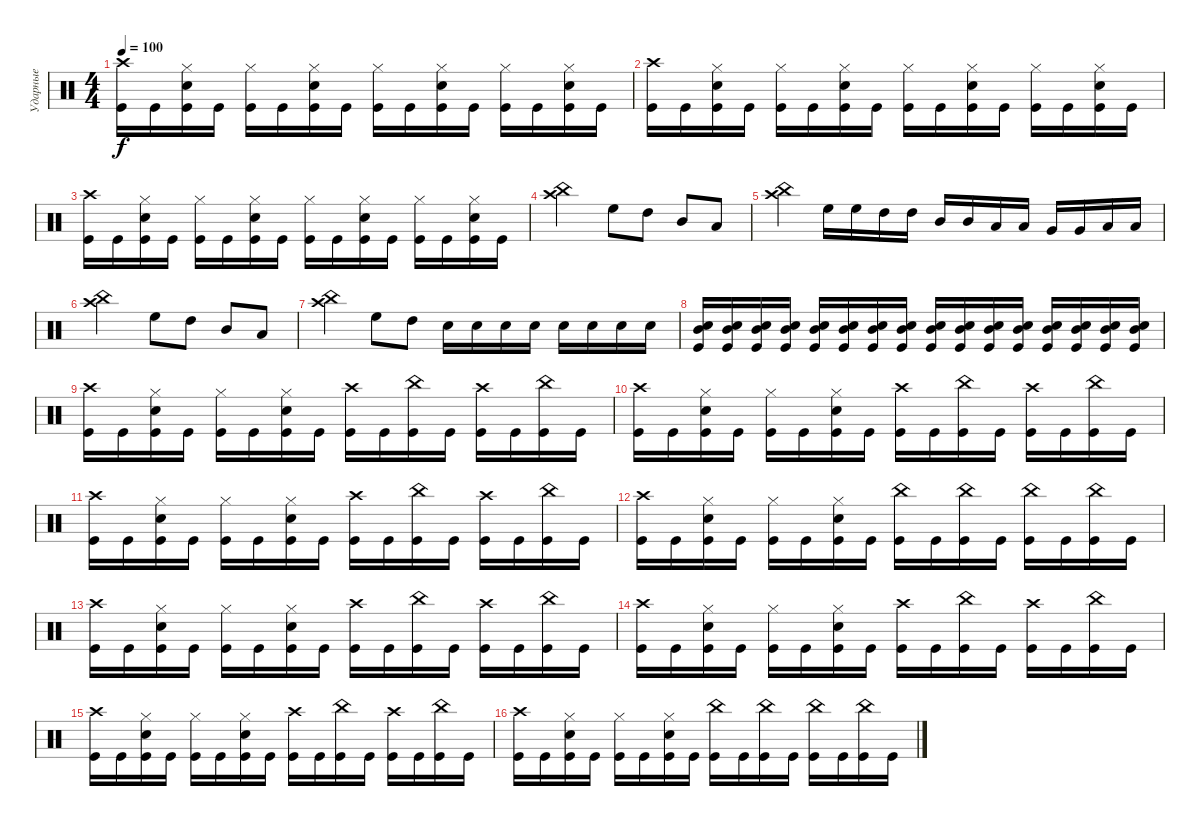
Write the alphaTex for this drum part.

\track ("Ударные" "Ударные") {instrument percussion}
\staff {score}
\articulation defaults
\ts (4 4)
\tempo 100
\clef neutral
\ks c
("Kick (hit)" "Crash high (hit)").16{dy f} "Kick (hit)".16 ("Kick (hit)" "Hi-Hat (closed)" "Snare (hit) 2").16 "Kick (hit)".16 ("Kick (hit)" "Hi-Hat (closed)").16 "Kick (hit)".16 ("Kick (hit)" "Hi-Hat (closed)" "Snare (hit) 2").16 "Kick (hit)".16 ("Kick (hit)" "Hi-Hat (closed)").16 "Kick (hit)".16 ("Kick (hit)" "Hi-Hat (closed)" "Snare (hit) 2").16 "Kick (hit)".16 ("Kick (hit)" "Hi-Hat (closed)").16 "Kick (hit)".16 ("Kick (hit)" "Hi-Hat (closed)" "Snare (hit) 2").16 "Kick (hit)".16 |
("Kick (hit)" "Crash high (hit)").16 "Kick (hit)".16 ("Kick (hit)" "Hi-Hat (closed)" "Snare (hit) 2").16 "Kick (hit)".16 ("Kick (hit)" "Hi-Hat (closed)").16 "Kick (hit)".16 ("Kick (hit)" "Hi-Hat (closed)" "Snare (hit) 2").16 "Kick (hit)".16 ("Kick (hit)" "Hi-Hat (closed)").16 "Kick (hit)".16 ("Kick (hit)" "Hi-Hat (closed)" "Snare (hit) 2").16 "Kick (hit)".16 ("Kick (hit)" "Hi-Hat (closed)").16 "Kick (hit)".16 ("Kick (hit)" "Hi-Hat (closed)" "Snare (hit) 2").16 "Kick (hit)".16 |
("Kick (hit)" "Crash high (hit)").16 "Kick (hit)".16 ("Kick (hit)" "Hi-Hat (closed)" "Snare (hit) 2").16 "Kick (hit)".16 ("Kick (hit)" "Hi-Hat (closed)").16 "Kick (hit)".16 ("Kick (hit)" "Hi-Hat (closed)" "Snare (hit) 2").16 "Kick (hit)".16 ("Kick (hit)" "Hi-Hat (closed)").16 "Kick (hit)".16 ("Kick (hit)" "Hi-Hat (closed)" "Snare (hit) 2").16 "Kick (hit)".16 ("Kick (hit)" "Hi-Hat (closed)").16 "Kick (hit)".16 ("Kick (hit)" "Hi-Hat (closed)" "Snare (hit) 2").16 "Kick (hit)".16 |
("Crash high (hit)" "China (hit)").2 "High Floor Tom (hit)".8 "High Tom (hit)".8 "Mid Tom (hit)".8 "Low Tom (hit)".8 |
("Crash high (hit)" "China (hit)").4 "High Floor Tom (hit)".16 "High Floor Tom (hit)".16 "High Tom (hit)".16 "High Tom (hit)".16 "Mid Tom (hit)".16 "Mid Tom (hit)".16 "Low Tom (hit)".16 "Low Tom (hit)".16 "Very Low Tom (hit)".16 "Very Low Tom (hit)".16 "Low Floor Tom (hit)".16 "Low Floor Tom (hit)".16 |
("Crash high (hit)" "China (hit)").2 "High Floor Tom (hit)".8 "High Tom (hit)".8 "Mid Tom (hit)".8 "Low Tom (hit)".8 |
("Crash high (hit)" "China (hit)").4 "High Floor Tom (hit)".8 "High Tom (hit)".8 "Snare (hit) 2".16 "Snare (hit) 2".16 "Snare (hit) 2".16 "Snare (hit) 2".16 "Snare (hit) 2".16 "Snare (hit) 2".16 "Snare (hit) 2".16 "Snare (hit) 2".16 |
("Kick (hit)" "Snare (hit) 2" "Mid Tom (hit)").16 ("Kick (hit)" "Snare (hit) 2" "Mid Tom (hit)").16 ("Kick (hit)" "Snare (hit) 2" "Mid Tom (hit)").16 ("Kick (hit)" "Snare (hit) 2" "Mid Tom (hit)").16 ("Kick (hit)" "Snare (hit) 2" "Mid Tom (hit)").16 ("Kick (hit)" "Snare (hit) 2" "Mid Tom (hit)").16 ("Kick (hit)" "Snare (hit) 2" "Mid Tom (hit)").16 ("Kick (hit)" "Snare (hit) 2" "Mid Tom (hit)").16 ("Kick (hit)" "Snare (hit) 2" "Mid Tom (hit)").16 ("Kick (hit)" "Snare (hit) 2" "Mid Tom (hit)").16 ("Kick (hit)" "Snare (hit) 2" "Mid Tom (hit)").16 ("Kick (hit)" "Snare (hit) 2" "Mid Tom (hit)").16 ("Kick (hit)" "Snare (hit) 2" "Mid Tom (hit)").16 ("Kick (hit)" "Snare (hit) 2" "Mid Tom (hit)").16 ("Kick (hit)" "Snare (hit) 2" "Mid Tom (hit)").16 ("Kick (hit)" "Snare (hit) 2" "Mid Tom (hit)").16 |
("Kick (hit)" "Crash high (hit)").16 "Kick (hit)".16 ("Kick (hit)" "Hi-Hat (closed)" "Snare (hit) 2").16 "Kick (hit)".16 ("Kick (hit)" "Hi-Hat (closed)").16 "Kick (hit)".16 ("Kick (hit)" "Hi-Hat (closed)" "Snare (hit) 2").16 "Kick (hit)".16 ("Kick (hit)" "Crash high (hit)").16 "Kick (hit)".16 ("Kick (hit)" "China (hit)").16 "Kick (hit)".16 ("Kick (hit)" "Crash high (hit)").16 "Kick (hit)".16 ("Kick (hit)" "China (hit)").16 "Kick (hit)".16 |
("Kick (hit)" "Crash high (hit)").16 "Kick (hit)".16 ("Kick (hit)" "Hi-Hat (closed)" "Snare (hit) 2").16 "Kick (hit)".16 ("Kick (hit)" "Hi-Hat (closed)").16 "Kick (hit)".16 ("Kick (hit)" "Hi-Hat (closed)" "Snare (hit) 2").16 "Kick (hit)".16 ("Kick (hit)" "Crash high (hit)").16 "Kick (hit)".16 ("Kick (hit)" "China (hit)").16 "Kick (hit)".16 ("Kick (hit)" "Crash high (hit)").16 "Kick (hit)".16 ("Kick (hit)" "China (hit)").16 "Kick (hit)".16 |
("Kick (hit)" "Crash high (hit)").16 "Kick (hit)".16 ("Kick (hit)" "Hi-Hat (closed)" "Snare (hit) 2").16 "Kick (hit)".16 ("Kick (hit)" "Hi-Hat (closed)").16 "Kick (hit)".16 ("Kick (hit)" "Hi-Hat (closed)" "Snare (hit) 2").16 "Kick (hit)".16 ("Kick (hit)" "Crash high (hit)").16 "Kick (hit)".16 ("Kick (hit)" "China (hit)").16 "Kick (hit)".16 ("Kick (hit)" "Crash high (hit)").16 "Kick (hit)".16 ("Kick (hit)" "China (hit)").16 "Kick (hit)".16 |
("Kick (hit)" "Crash high (hit)").16 "Kick (hit)".16 ("Kick (hit)" "Hi-Hat (closed)" "Snare (hit) 2").16 "Kick (hit)".16 ("Kick (hit)" "Hi-Hat (closed)").16 "Kick (hit)".16 ("Kick (hit)" "Hi-Hat (closed)" "Snare (hit) 2").16 "Kick (hit)".16 ("Kick (hit)" "China (hit)").16 "Kick (hit)".16 ("Kick (hit)" "China (hit)").16 "Kick (hit)".16 ("Kick (hit)" "China (hit)").16 "Kick (hit)".16 ("Kick (hit)" "China (hit)").16 "Kick (hit)".16 |
("Kick (hit)" "Crash high (hit)").16 "Kick (hit)".16 ("Kick (hit)" "Hi-Hat (closed)" "Snare (hit) 2").16 "Kick (hit)".16 ("Kick (hit)" "Hi-Hat (closed)").16 "Kick (hit)".16 ("Kick (hit)" "Hi-Hat (closed)" "Snare (hit) 2").16 "Kick (hit)".16 ("Kick (hit)" "Crash high (hit)").16 "Kick (hit)".16 ("Kick (hit)" "China (hit)").16 "Kick (hit)".16 ("Kick (hit)" "Crash high (hit)").16 "Kick (hit)".16 ("Kick (hit)" "China (hit)").16 "Kick (hit)".16 |
("Kick (hit)" "Crash high (hit)").16 "Kick (hit)".16 ("Kick (hit)" "Hi-Hat (closed)" "Snare (hit) 2").16 "Kick (hit)".16 ("Kick (hit)" "Hi-Hat (closed)").16 "Kick (hit)".16 ("Kick (hit)" "Hi-Hat (closed)" "Snare (hit) 2").16 "Kick (hit)".16 ("Kick (hit)" "Crash high (hit)").16 "Kick (hit)".16 ("Kick (hit)" "China (hit)").16 "Kick (hit)".16 ("Kick (hit)" "Crash high (hit)").16 "Kick (hit)".16 ("Kick (hit)" "China (hit)").16 "Kick (hit)".16 |
("Kick (hit)" "Crash high (hit)").16 "Kick (hit)".16 ("Kick (hit)" "Hi-Hat (closed)" "Snare (hit) 2").16 "Kick (hit)".16 ("Kick (hit)" "Hi-Hat (closed)").16 "Kick (hit)".16 ("Kick (hit)" "Hi-Hat (closed)" "Snare (hit) 2").16 "Kick (hit)".16 ("Kick (hit)" "Crash high (hit)").16 "Kick (hit)".16 ("Kick (hit)" "China (hit)").16 "Kick (hit)".16 ("Kick (hit)" "Crash high (hit)").16 "Kick (hit)".16 ("Kick (hit)" "China (hit)").16 "Kick (hit)".16 |
("Kick (hit)" "Crash high (hit)").16 "Kick (hit)".16 ("Kick (hit)" "Hi-Hat (closed)" "Snare (hit) 2").16 "Kick (hit)".16 ("Kick (hit)" "Hi-Hat (closed)").16 "Kick (hit)".16 ("Kick (hit)" "Hi-Hat (closed)" "Snare (hit) 2").16 "Kick (hit)".16 ("Kick (hit)" "China (hit)").16 "Kick (hit)".16 ("Kick (hit)" "China (hit)").16 "Kick (hit)".16 ("Kick (hit)" "China (hit)").16 "Kick (hit)".16 ("Kick (hit)" "China (hit)").16 "Kick (hit)".16
